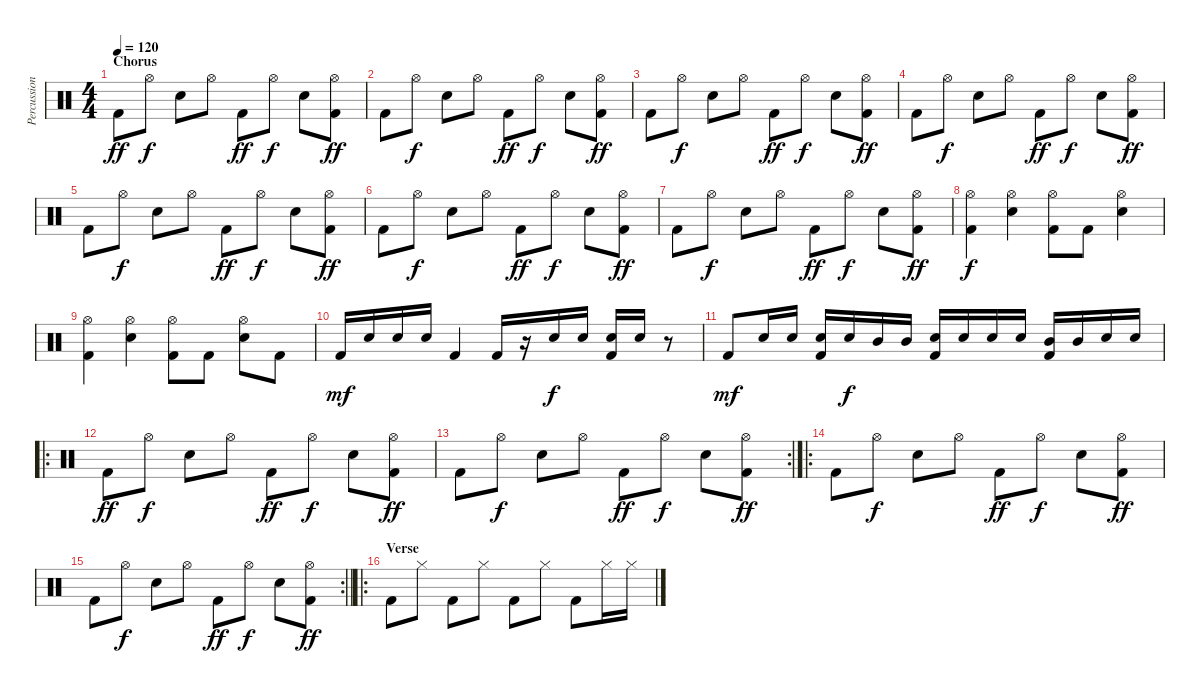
\track ("Percussion" "Percussion") {instrument percussion}
\staff {score}
\articulation defaults
\ts (4 4)
\section ("" "Chorus")
\tempo 120
\clef neutral
\ks c "Kick (hit) 2".8{dy ff} "Hi-Hat (open)".8{dy f} "Electric Snare (hit)".8 "Hi-Hat (open)".8 "Kick (hit) 2".8{dy ff} "Hi-Hat (open)".8{dy f} "Electric Snare (hit)".8
("Hi-Hat (open)" "Kick (hit) 2").8{dy ff} |
"Kick (hit) 2".8 "Hi-Hat (open)".8{dy f} "Electric Snare (hit)".8 "Hi-Hat (open)".8 "Kick (hit) 2".8{dy ff} "Hi-Hat (open)".8{dy f} "Electric Snare (hit)".8 ("Hi-Hat (open)" "Kick (hit) 2").8{dy ff} |
"Kick (hit) 2".8 "Hi-Hat (open)".8{dy f} "Electric Snare (hit)".8 "Hi-Hat (open)".8 "Kick (hit) 2".8{dy ff} "Hi-Hat (open)".8{dy f} "Electric Snare (hit)".8 ("Hi-Hat (open)" "Kick (hit) 2").8{dy ff} |
"Kick (hit) 2".8 "Hi-Hat (open)".8{dy f} "Electric Snare (hit)".8 "Hi-Hat (open)".8 "Kick (hit) 2".8{dy ff} "Hi-Hat (open)".8{dy f} "Electric Snare (hit)".8 ("Hi-Hat (open)" "Kick (hit) 2").8{dy ff} |
"Kick (hit) 2".8 "Hi-Hat (open)".8{dy f} "Electric Snare (hit)".8 "Hi-Hat (open)".8 "Kick (hit) 2".8{dy ff} "Hi-Hat (open)".8{dy f} "Electric Snare (hit)".8 ("Hi-Hat (open)" "Kick (hit) 2").8{dy ff} |
"Kick (hit) 2".8 "Hi-Hat (open)".8{dy f} "Electric Snare (hit)".8 "Hi-Hat (open)".8 "Kick (hit) 2".8{dy ff} "Hi-Hat (open)".8{dy f} "Electric Snare (hit)".8 ("Hi-Hat (open)" "Kick (hit) 2").8{dy ff} |
"Kick (hit) 2".8 "Hi-Hat (open)".8{dy f} "Electric Snare (hit)".8 "Hi-Hat (open)".8 "Kick (hit) 2".8{dy ff} "Hi-Hat (open)".8{dy f} "Electric Snare (hit)".8 ("Hi-Hat (open)" "Kick (hit) 2").8{dy ff} |
("Hi-Hat (open)" "Kick (hit) 2").4{dy f} ("Hi-Hat (open)" "Electric Snare (hit)").4 ("Hi-Hat (open)" "Kick (hit) 2").8 "Kick (hit) 2".8 ("Hi-Hat (open)" "Electric Snare (hit)").4 |
("Hi-Hat (open)" "Kick (hit) 2").4 ("Hi-Hat (open)" "Electric Snare (hit)").4 ("Hi-Hat (open)" "Kick (hit) 2").8 "Kick (hit) 2".8 ("Hi-Hat (open)" "Electric Snare (hit)").8 "Kick (hit) 2".8 |
"Kick (hit) 2".16{dy mf volume 16} "Electric Snare (hit)".16 "Electric Snare (hit)".16 "Electric Snare (hit)".16 "Kick (hit) 2".4 "Kick (hit) 2".16 r.16 "Electric Snare (hit)".16{dy f} "Electric Snare (hit)".16 ("Electric Snare (hit)" "Kick (hit) 2").16 "Electric Snare (hit)".16 r.8 |
"Kick (hit) 2".8{dy mf} "Electric Snare (hit)".16 "Electric Snare (hit)".16 ("Electric Snare (hit)" "Kick (hit) 2").16 "Electric Snare (hit)".16{dy f} "Mid Tom (hit)".16 "Mid Tom (hit)".16 ("Electric Snare (hit)" "Kick (hit) 2").16 "Electric Snare (hit)".16 "Electric Snare (hit)".16 "Electric Snare (hit)".16 ("Mid Tom (hit)" "Kick (hit) 2").16 "Mid Tom (hit)".16 "Electric Snare (hit)".16 "Electric Snare (hit)".16 |
\ro "Kick (hit) 2".8{dy ff volume 12} "Hi-Hat (open)".8{dy f} "Electric Snare (hit)".8 "Hi-Hat (open)".8 "Kick (hit) 2".8{dy ff} "Hi-Hat (open)".8{dy f} "Electric Snare (hit)".8
("Hi-Hat (open)" "Kick (hit) 2").8{dy ff} |
\rc 2 "Kick (hit) 2".8 "Hi-Hat (open)".8{dy f} "Electric Snare (hit)".8 "Hi-Hat (open)".8 "Kick (hit) 2".8{dy ff} "Hi-Hat (open)".8{dy f} "Electric Snare (hit)".8
("Hi-Hat (open)" "Kick (hit) 2").8{dy ff} |
\ro "Kick (hit) 2".8 "Hi-Hat (open)".8{dy f} "Electric Snare (hit)".8 "Hi-Hat (open)".8 "Kick (hit) 2".8{dy ff} "Hi-Hat (open)".8{dy f} "Electric Snare (hit)".8
("Hi-Hat (open)" "Kick (hit) 2").8{dy ff} |
\rc 2
\barLineRight lightlight "Kick (hit) 2".8 "Hi-Hat (open)".8{dy f} "Electric Snare (hit)".8 "Hi-Hat (open)".8 "Kick (hit) 2".8{dy ff} "Hi-Hat (open)".8{dy f} "Electric Snare (hit)".8
("Hi-Hat (open)" "Kick (hit) 2").8{dy ff} |
\ro
\section ("" "Verse")
"Kick (hit) 2".8 "Hi-Hat (closed)".8 "Kick (hit) 2".8 "Hi-Hat (closed)".8 "Kick (hit) 2".8 "Hi-Hat (closed)".8 "Kick (hit) 2".8 "Hi-Hat (closed)".16 "Hi-Hat (closed)".16
